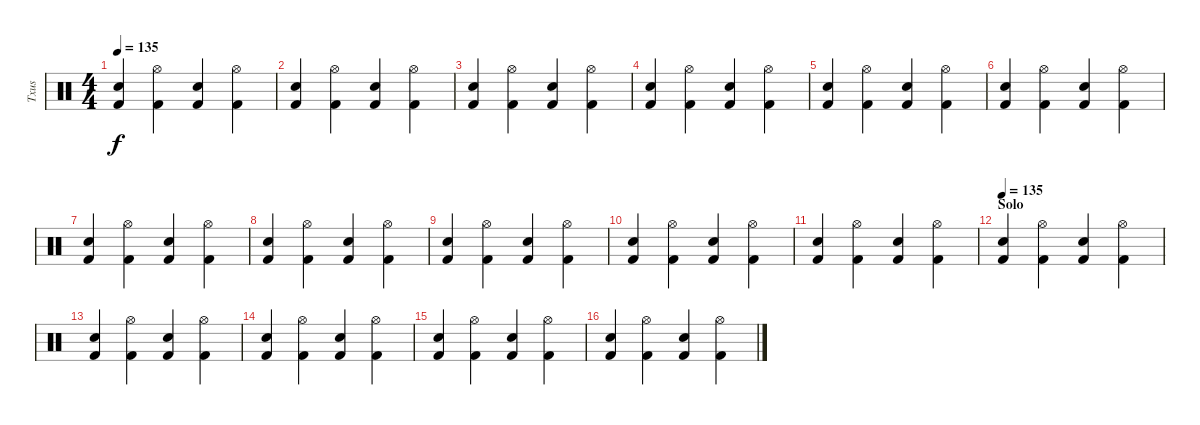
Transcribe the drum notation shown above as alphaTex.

\track ("Txus" "Txus") {instrument percussion}
\staff {score}
\articulation defaults
\ts (4 4)
\tempo 135
\clef neutral
\ks c
("Snare (hit) 2" "Kick (hit) 2").4{dy f} ("Hi-Hat (open)" "Kick (hit) 2").4 ("Snare (hit) 2" "Kick (hit) 2").4 ("Hi-Hat (open)" "Kick (hit) 2").4 |
("Snare (hit) 2" "Kick (hit) 2").4 ("Hi-Hat (open)" "Kick (hit) 2").4 ("Snare (hit) 2" "Kick (hit) 2").4 ("Hi-Hat (open)" "Kick (hit) 2").4 |
("Snare (hit) 2" "Kick (hit) 2").4 ("Hi-Hat (open)" "Kick (hit) 2").4 ("Snare (hit) 2" "Kick (hit) 2").4 ("Hi-Hat (open)" "Kick (hit) 2").4 |
("Snare (hit) 2" "Kick (hit) 2").4 ("Hi-Hat (open)" "Kick (hit) 2").4 ("Snare (hit) 2" "Kick (hit) 2").4 ("Hi-Hat (open)" "Kick (hit) 2").4 |
("Snare (hit) 2" "Kick (hit) 2").4 ("Hi-Hat (open)" "Kick (hit) 2").4 ("Snare (hit) 2" "Kick (hit) 2").4 ("Hi-Hat (open)" "Kick (hit) 2").4 |
("Snare (hit) 2" "Kick (hit) 2").4 ("Hi-Hat (open)" "Kick (hit) 2").4 ("Snare (hit) 2" "Kick (hit) 2").4 ("Hi-Hat (open)" "Kick (hit) 2").4 |
("Snare (hit) 2" "Kick (hit) 2").4 ("Hi-Hat (open)" "Kick (hit) 2").4 ("Snare (hit) 2" "Kick (hit) 2").4 ("Hi-Hat (open)" "Kick (hit) 2").4 |
("Snare (hit) 2" "Kick (hit) 2").4 ("Hi-Hat (open)" "Kick (hit) 2").4 ("Snare (hit) 2" "Kick (hit) 2").4 ("Hi-Hat (open)" "Kick (hit) 2").4 |
("Snare (hit) 2" "Kick (hit) 2").4 ("Hi-Hat (open)" "Kick (hit) 2").4 ("Snare (hit) 2" "Kick (hit) 2").4 ("Hi-Hat (open)" "Kick (hit) 2").4 |
("Snare (hit) 2" "Kick (hit) 2").4 ("Hi-Hat (open)" "Kick (hit) 2").4 ("Snare (hit) 2" "Kick (hit) 2").4 ("Hi-Hat (open)" "Kick (hit) 2").4 |
("Snare (hit) 2" "Kick (hit) 2").4 ("Hi-Hat (open)" "Kick (hit) 2").4 ("Snare (hit) 2" "Kick (hit) 2").4 ("Hi-Hat (open)" "Kick (hit) 2").4 |
\section ("" "Solo")
\tempo 135
("Snare (hit) 2" "Kick (hit) 2").4 ("Hi-Hat (open)" "Kick (hit) 2").4 ("Snare (hit) 2" "Kick (hit) 2").4 ("Hi-Hat (open)" "Kick (hit) 2").4 |
("Snare (hit) 2" "Kick (hit) 2").4 ("Hi-Hat (open)" "Kick (hit) 2").4 ("Snare (hit) 2" "Kick (hit) 2").4 ("Hi-Hat (open)" "Kick (hit) 2").4 |
("Snare (hit) 2" "Kick (hit) 2").4 ("Hi-Hat (open)" "Kick (hit) 2").4 ("Snare (hit) 2" "Kick (hit) 2").4 ("Hi-Hat (open)" "Kick (hit) 2").4 |
("Snare (hit) 2" "Kick (hit) 2").4 ("Hi-Hat (open)" "Kick (hit) 2").4 ("Snare (hit) 2" "Kick (hit) 2").4 ("Hi-Hat (open)" "Kick (hit) 2").4 |
("Snare (hit) 2" "Kick (hit) 2").4 ("Hi-Hat (open)" "Kick (hit) 2").4 ("Snare (hit) 2" "Kick (hit) 2").4 ("Hi-Hat (open)" "Kick (hit) 2").4
